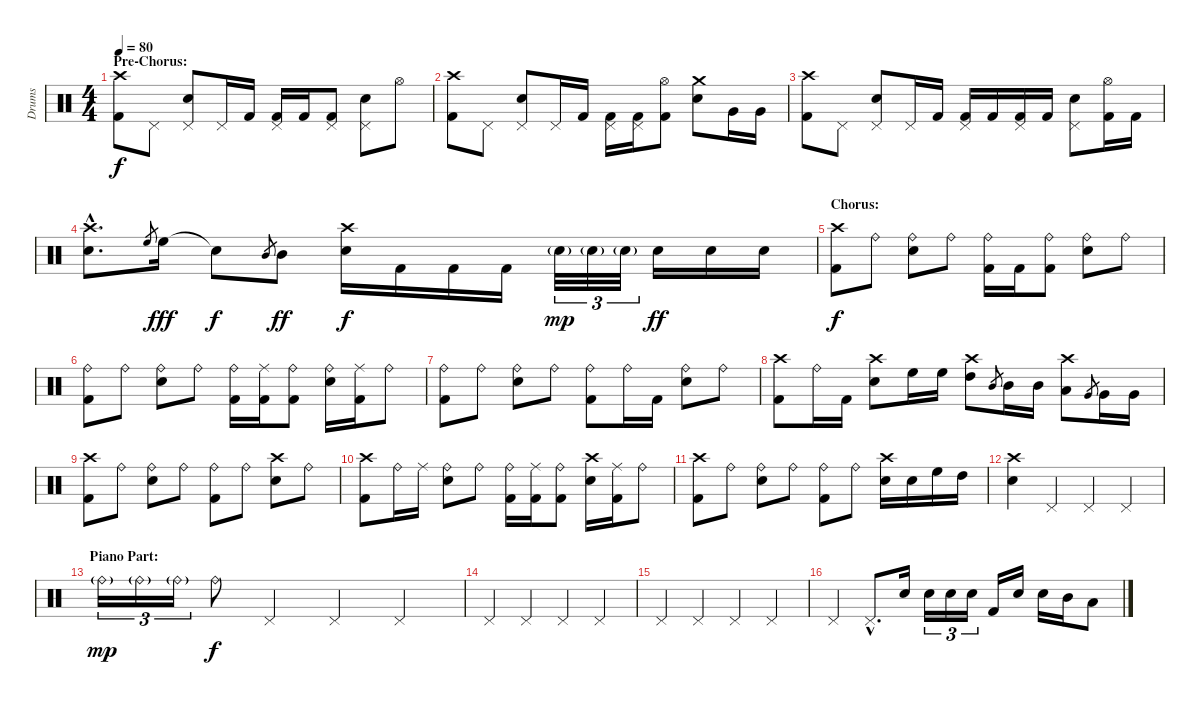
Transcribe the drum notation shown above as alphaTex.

\track ("Drums" "Drums") {instrument percussion}
\staff {score}
\articulation defaults
\ts (4 4)
\section ("" "Pre-Chorus:")
\tempo 80
\clef neutral
\ks c
("Crash high (hit)" "Kick (hit) 2").8{dy f} "Pedal Hi-Hat (hit)".8 ("Pedal Hi-Hat (hit)" "Electric Snare (hit)").8 "Pedal Hi-Hat (hit)".16 "Kick (hit) 2".16 ("Pedal Hi-Hat (hit)" "Kick (hit) 2").16 "Kick (hit) 2".16 ("Pedal Hi-Hat (hit)" "Kick (hit) 2").8 ("Pedal Hi-Hat (hit)" "Electric Snare (hit)").8 "Hi-Hat (open)".8 |
("Crash high (hit)" "Kick (hit) 2").8 "Pedal Hi-Hat (hit)".8 ("Pedal Hi-Hat (hit)" "Electric Snare (hit)").8 "Pedal Hi-Hat (hit)".16 "Kick (hit) 2".16 ("Pedal Hi-Hat (hit)" "Kick (hit) 2").16 ("Pedal Hi-Hat (hit)" "Kick (hit) 2").16 ("Hi-Hat (open)" "Kick (hit) 2").8 ("Crash medium (hit)" "Electric Snare (hit)").8 "Very Low Tom (hit)".16 "Very Low Tom (hit)".16 |
("Crash high (hit)" "Kick (hit) 2").8 "Pedal Hi-Hat (hit)".8 ("Pedal Hi-Hat (hit)" "Electric Snare (hit)").8 "Pedal Hi-Hat (hit)".16 "Kick (hit) 2".16 ("Pedal Hi-Hat (hit)" "Kick (hit) 2").16 "Kick (hit) 2".16 ("Pedal Hi-Hat (hit)" "Kick (hit) 2").16 "Kick (hit) 2".16 ("Pedal Hi-Hat (hit)" "Electric Snare (hit)").8 ("Hi-Hat (open)" "Kick (hit) 2").16 "Kick (hit) 2".16 |
("Crash high (hit)"{hac} "Electric Snare (hit)"{hac}).8{d} "High Floor Tom (hit)".8{gr} "High Floor Tom (hit)".16{dy fff} "Snare (hit)"{t}.8{dy f} "Mid Tom (hit)".8{gr} "Mid Tom (hit)".8{dy ff} ("Crash high (hit)" "Electric Snare (hit)").16{dy f} "Kick (hit) 2".16 "Kick (hit) 2".16 "Kick (hit) 2".16 "Electric Snare (hit)"{g}.32{tu (3 2) dy mp} "Electric Snare (hit)"{g}.32{tu (3 2)} "Electric Snare (hit)"{g}.32{tu (3 2)} "Electric Snare (hit)".16{dy ff} "Electric Snare (hit)".16 "Electric Snare (hit)".16 |
\section ("" "Chorus:")
("Crash high (hit)" "Kick (hit) 2").8{dy f} "Ride (bell)".8 ("Ride (bell)" "Electric Snare (hit)").8 "Ride (bell)".8 ("Ride (bell)" "Kick (hit) 2").16 "Kick (hit) 2".16 ("Ride (bell)" "Kick (hit) 2").8 ("Ride (bell)" "Electric Snare (hit)").8 "Ride (bell)".8 |
("Ride (bell)" "Kick (hit) 2").8 "Ride (bell)".8 ("Ride (bell)" "Electric Snare (hit)").8 "Ride (bell)".8 ("Ride (bell)" "Kick (hit) 2").16 ("Ride (middle)" "Kick (hit) 2").16 ("Ride (bell)" "Kick (hit) 2").8 ("Ride (bell)" "Electric Snare (hit)").16 ("Ride (middle)" "Kick (hit) 2").16 "Ride (bell)".8 |
("Ride (bell)" "Kick (hit) 2").8 "Ride (bell)".8 ("Ride (bell)" "Electric Snare (hit)").8 "Ride (bell)".8 ("Ride (bell)" "Kick (hit) 2").8 "Ride (bell)".16 "Kick (hit) 2".16 ("Ride (bell)" "Electric Snare (hit)").8 "Ride (bell)".8 |
("Crash high (hit)" "Kick (hit) 2").8 "Ride (bell)".16 "Kick (hit) 2".16 ("Crash high (hit)" "Electric Snare (hit)").8 "High Floor Tom (hit)".16 "High Floor Tom (hit)".16 ("Crash high (hit)" "High Tom (hit)").8 "Mid Tom (hit)".8{gr} "Mid Tom (hit)".16 "Mid Tom (hit)".16 ("Crash high (hit)" "Low Tom (hit)").8 "Very Low Tom (hit)".8{gr} "Very Low Tom (hit)".16 "Very Low Tom (hit)".16 |
("Crash high (hit)" "Kick (hit) 2").8 "Ride (bell)".8 ("Ride (bell)" "Electric Snare (hit)").8 "Ride (bell)".8 ("Ride (bell)" "Kick (hit) 2").8 "Ride (bell)".8 ("Crash high (hit)" "Electric Snare (hit)").8 "Ride (bell)".8 |
("Crash high (hit)" "Kick (hit) 2").8 "Ride (bell)".16 "Ride (middle)".16 ("Ride (bell)" "Electric Snare (hit)").8 "Ride (bell)".8 ("Ride (bell)" "Kick (hit) 2").16 ("Ride (middle)" "Kick (hit) 2").16 ("Ride (bell)" "Kick (hit) 2").8 ("Crash high (hit)" "Electric Snare (hit)").16 ("Ride (middle)" "Kick (hit) 2").16 "Ride (bell)".8 |
("Crash high (hit)" "Kick (hit) 2").8 "Ride (bell)".8 ("Ride (bell)" "Electric Snare (hit)").8 "Ride (bell)".8 ("Ride (bell)" "Kick (hit) 2").8 "Ride (bell)".8 ("Crash high (hit)" "Electric Snare (hit)").16 "Electric Snare (hit)".16 "High Floor Tom (hit)".16 "High Tom (hit)".16 |
("Crash high (hit)" "Electric Snare (hit)").4 "Pedal Hi-Hat (hit)".4 "Pedal Hi-Hat (hit)".4 "Pedal Hi-Hat (hit)".4 |
\section ("" "Piano Part:")
"Ride (bell)"{g}.16{tu (3 2) dy mp} "Ride (bell)"{g}.16{tu (3 2)} "Ride (bell)"{g}.16{tu (3 2)} "Ride (bell)".8{dy f} "Pedal Hi-Hat (hit)".4 "Pedal Hi-Hat (hit)".4 "Pedal Hi-Hat (hit)".4 |
"Pedal Hi-Hat (hit)".4 "Pedal Hi-Hat (hit)".4 "Pedal Hi-Hat (hit)".4 "Pedal Hi-Hat (hit)".4 |
"Pedal Hi-Hat (hit)".4 "Pedal Hi-Hat (hit)".4 "Pedal Hi-Hat (hit)".4 "Pedal Hi-Hat (hit)".4 |
"Pedal Hi-Hat (hit)".4 "Pedal Hi-Hat (hit)"{hac}.8{d} "Electric Snare (hit)".16 "Electric Snare (hit)".16{tu (3 2)} "Electric Snare (hit)".16{tu (3 2)} "Electric Snare (hit)".16{tu (3 2)} "Kick (hit) 2".16 "Electric Snare (hit)".16 "Electric Snare (hit)".16 "Mid Tom (hit)".16 "Low Tom (hit)".8
